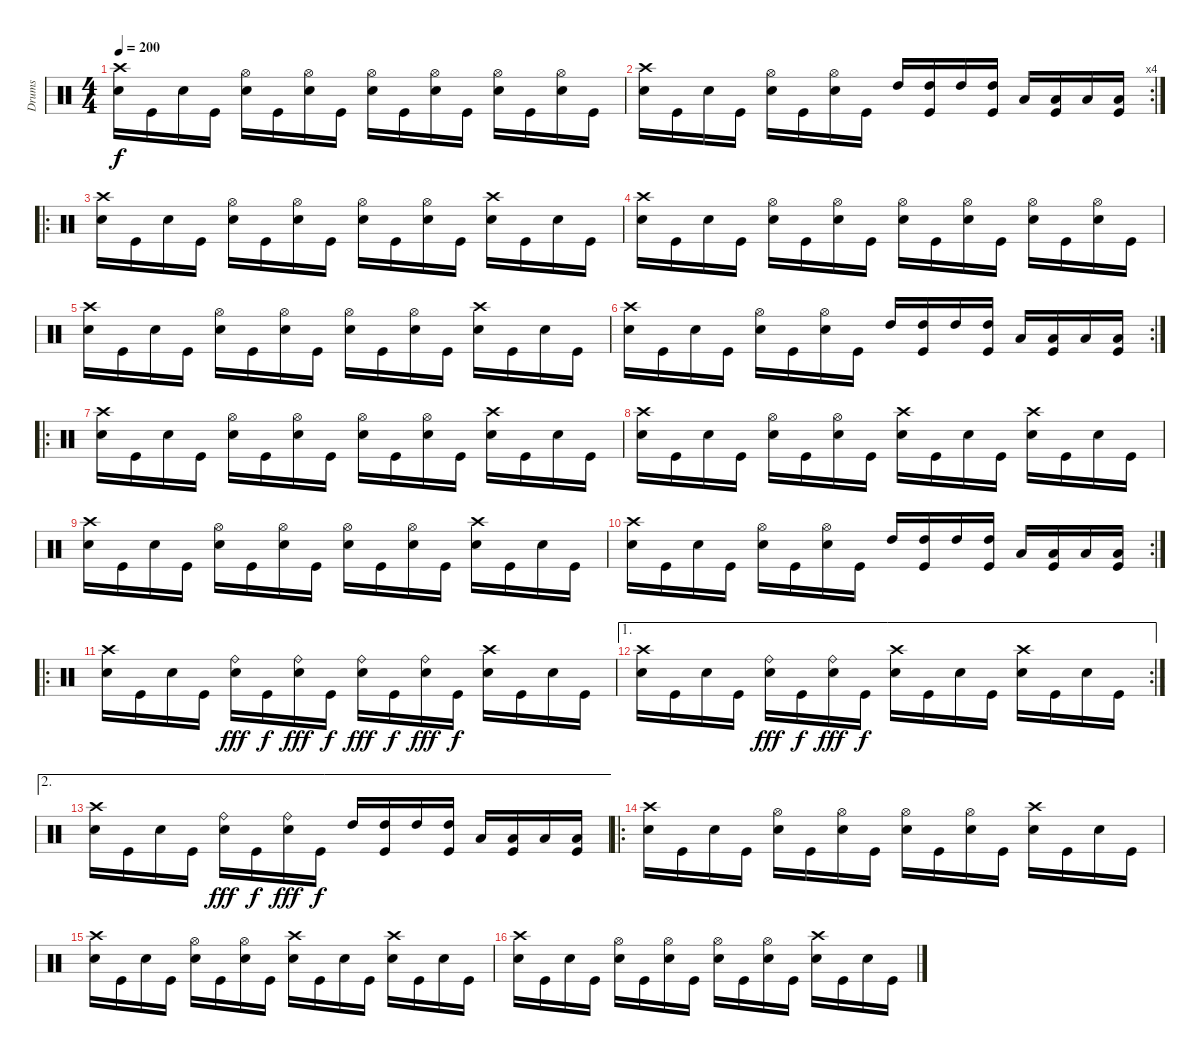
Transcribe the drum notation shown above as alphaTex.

\track ("Drums" "Drums") {instrument percussion}
\staff {score}
\articulation defaults
\ts (4 4)
\tempo 200
\clef neutral
\ks c
("Crash high (hit)" "Snare (hit) 2").16{dy f} "Kick (hit)".16 "Snare (hit) 2".16 "Kick (hit)".16 ("Hi-Hat (open)" "Snare (hit) 2").16 "Kick (hit)".16 ("Hi-Hat (open)" "Snare (hit) 2").16 "Kick (hit)".16 ("Hi-Hat (open)" "Snare (hit) 2").16 "Kick (hit)".16 ("Hi-Hat (open)" "Snare (hit) 2").16 "Kick (hit)".16 ("Hi-Hat (open)" "Snare (hit) 2").16 "Kick (hit)".16 ("Hi-Hat (open)" "Snare (hit) 2").16 "Kick (hit)".16 |
\rc 4
("Crash high (hit)" "Snare (hit) 2").16 "Kick (hit)".16 "Snare (hit) 2".16 "Kick (hit)".16 ("Hi-Hat (open)" "Snare (hit) 2").16 "Kick (hit)".16 ("Hi-Hat (open)" "Snare (hit) 2").16 "Kick (hit)".16 "High Tom (hit)".16 ("High Tom (hit)" "Kick (hit)").16 "High Tom (hit)".16 ("High Tom (hit)" "Kick (hit)").16 "Low Tom (hit)".16 ("Low Tom (hit)" "Kick (hit)").16 "Low Tom (hit)".16 ("Low Tom (hit)" "Kick (hit)").16 |
\ro
("Crash high (hit)" "Snare (hit) 2").16 "Kick (hit)".16 "Snare (hit) 2".16 "Kick (hit)".16 ("Hi-Hat (open)" "Snare (hit) 2").16 "Kick (hit)".16 ("Hi-Hat (open)" "Snare (hit) 2").16 "Kick (hit)".16 ("Hi-Hat (open)" "Snare (hit) 2").16 "Kick (hit)".16 ("Hi-Hat (open)" "Snare (hit) 2").16 "Kick (hit)".16 ("Crash high (hit)" "Snare (hit) 2").16 "Kick (hit)".16 "Snare (hit) 2".16 "Kick (hit)".16 |
("Crash high (hit)" "Snare (hit) 2").16 "Kick (hit)".16 "Snare (hit) 2".16 "Kick (hit)".16 ("Hi-Hat (open)" "Snare (hit) 2").16 "Kick (hit)".16 ("Hi-Hat (open)" "Snare (hit) 2").16 "Kick (hit)".16 ("Hi-Hat (open)" "Snare (hit) 2").16 "Kick (hit)".16 ("Hi-Hat (open)" "Snare (hit) 2").16 "Kick (hit)".16 ("Hi-Hat (open)" "Snare (hit) 2").16 "Kick (hit)".16 ("Hi-Hat (open)" "Snare (hit) 2").16 "Kick (hit)".16 |
("Crash high (hit)" "Snare (hit) 2").16 "Kick (hit)".16 "Snare (hit) 2".16 "Kick (hit)".16 ("Hi-Hat (open)" "Snare (hit) 2").16 "Kick (hit)".16 ("Hi-Hat (open)" "Snare (hit) 2").16 "Kick (hit)".16 ("Hi-Hat (open)" "Snare (hit) 2").16 "Kick (hit)".16 ("Hi-Hat (open)" "Snare (hit) 2").16 "Kick (hit)".16 ("Crash high (hit)" "Snare (hit) 2").16 "Kick (hit)".16 "Snare (hit) 2".16 "Kick (hit)".16 |
\rc 2
("Crash high (hit)" "Snare (hit) 2").16 "Kick (hit)".16 "Snare (hit) 2".16 "Kick (hit)".16 ("Hi-Hat (open)" "Snare (hit) 2").16 "Kick (hit)".16 ("Hi-Hat (open)" "Snare (hit) 2").16 "Kick (hit)".16 "High Tom (hit)".16 ("High Tom (hit)" "Kick (hit)").16 "High Tom (hit)".16 ("High Tom (hit)" "Kick (hit)").16 "Low Tom (hit)".16 ("Low Tom (hit)" "Kick (hit)").16 "Low Tom (hit)".16 ("Low Tom (hit)" "Kick (hit)").16 |
\ro
("Crash high (hit)" "Snare (hit) 2").16 "Kick (hit)".16 "Snare (hit) 2".16 "Kick (hit)".16 ("Hi-Hat (open)" "Snare (hit) 2").16 "Kick (hit)".16 ("Hi-Hat (open)" "Snare (hit) 2").16 "Kick (hit)".16 ("Hi-Hat (open)" "Snare (hit) 2").16 "Kick (hit)".16 ("Hi-Hat (open)" "Snare (hit) 2").16 "Kick (hit)".16 ("Crash high (hit)" "Snare (hit) 2").16 "Kick (hit)".16 "Snare (hit) 2".16 "Kick (hit)".16 |
("Crash high (hit)" "Snare (hit) 2").16 "Kick (hit)".16 "Snare (hit) 2".16 "Kick (hit)".16 ("Hi-Hat (open)" "Snare (hit) 2").16 "Kick (hit)".16 ("Hi-Hat (open)" "Snare (hit) 2").16 "Kick (hit)".16 ("Crash high (hit)" "Snare (hit) 2").16 "Kick (hit)".16 "Snare (hit) 2".16 "Kick (hit)".16 ("Crash high (hit)" "Snare (hit) 2").16 "Kick (hit)".16 "Snare (hit) 2".16 "Kick (hit)".16 |
("Crash high (hit)" "Snare (hit) 2").16 "Kick (hit)".16 "Snare (hit) 2".16 "Kick (hit)".16 ("Hi-Hat (open)" "Snare (hit) 2").16 "Kick (hit)".16 ("Hi-Hat (open)" "Snare (hit) 2").16 "Kick (hit)".16 ("Hi-Hat (open)" "Snare (hit) 2").16 "Kick (hit)".16 ("Hi-Hat (open)" "Snare (hit) 2").16 "Kick (hit)".16 ("Crash high (hit)" "Snare (hit) 2").16 "Kick (hit)".16 "Snare (hit) 2".16 "Kick (hit)".16 |
\rc 2
("Crash high (hit)" "Snare (hit) 2").16 "Kick (hit)".16 "Snare (hit) 2".16 "Kick (hit)".16 ("Hi-Hat (open)" "Snare (hit) 2").16 "Kick (hit)".16 ("Hi-Hat (open)" "Snare (hit) 2").16 "Kick (hit)".16 "High Tom (hit)".16 ("High Tom (hit)" "Kick (hit)").16 "High Tom (hit)".16 ("High Tom (hit)" "Kick (hit)").16 "Low Tom (hit)".16 ("Low Tom (hit)" "Kick (hit)").16 "Low Tom (hit)".16 ("Low Tom (hit)" "Kick (hit)").16 |
\ro
("Crash high (hit)" "Snare (hit) 2").16 "Kick (hit)".16 "Snare (hit) 2".16 "Kick (hit)".16 ("Ride (bell)" "Snare (hit) 2").16{dy fff} "Kick (hit)".16{dy f} ("Ride (bell)" "Snare (hit) 2").16{dy fff} "Kick (hit)".16{dy f} ("Ride (bell)" "Snare (hit) 2").16{dy fff} "Kick (hit)".16{dy f} ("Ride (bell)" "Snare (hit) 2").16{dy fff} "Kick (hit)".16{dy f} ("Crash high (hit)" "Snare (hit) 2").16 "Kick (hit)".16 "Snare (hit) 2".16 "Kick (hit)".16 |
\ae 1
\rc 2
("Crash high (hit)" "Snare (hit) 2").16 "Kick (hit)".16 "Snare (hit) 2".16 "Kick (hit)".16 ("Ride (bell)" "Snare (hit) 2").16{dy fff} "Kick (hit)".16{dy f} ("Ride (bell)" "Snare (hit) 2").16{dy fff} "Kick (hit)".16{dy f} ("Crash high (hit)" "Snare (hit) 2").16 "Kick (hit)".16 "Snare (hit) 2".16 "Kick (hit)".16 ("Crash high (hit)" "Snare (hit) 2").16 "Kick (hit)".16 "Snare (hit) 2".16 "Kick (hit)".16 |
\ae 2
("Crash high (hit)" "Snare (hit) 2").16 "Kick (hit)".16 "Snare (hit) 2".16 "Kick (hit)".16 ("Ride (bell)" "Snare (hit) 2").16{dy fff} "Kick (hit)".16{dy f} ("Ride (bell)" "Snare (hit) 2").16{dy fff} "Kick (hit)".16{dy f} "High Tom (hit)".16 ("High Tom (hit)" "Kick (hit)").16 "High Tom (hit)".16 ("High Tom (hit)" "Kick (hit)").16 "Low Tom (hit)".16 ("Low Tom (hit)" "Kick (hit)").16 "Low Tom (hit)".16 ("Low Tom (hit)" "Kick (hit)").16 |
\ro
("Crash high (hit)" "Snare (hit) 2").16 "Kick (hit)".16 "Snare (hit) 2".16 "Kick (hit)".16 ("Hi-Hat (open)" "Snare (hit) 2").16 "Kick (hit)".16 ("Hi-Hat (open)" "Snare (hit) 2").16 "Kick (hit)".16 ("Hi-Hat (open)" "Snare (hit) 2").16 "Kick (hit)".16 ("Hi-Hat (open)" "Snare (hit) 2").16 "Kick (hit)".16 ("Crash high (hit)" "Snare (hit) 2").16 "Kick (hit)".16 "Snare (hit) 2".16 "Kick (hit)".16 |
("Crash high (hit)" "Snare (hit) 2").16 "Kick (hit)".16 "Snare (hit) 2".16 "Kick (hit)".16 ("Hi-Hat (open)" "Snare (hit) 2").16 "Kick (hit)".16 ("Hi-Hat (open)" "Snare (hit) 2").16 "Kick (hit)".16 ("Crash high (hit)" "Snare (hit) 2").16 "Kick (hit)".16 "Snare (hit) 2".16 "Kick (hit)".16 ("Crash high (hit)" "Snare (hit) 2").16 "Kick (hit)".16 "Snare (hit) 2".16 "Kick (hit)".16 |
("Crash high (hit)" "Snare (hit) 2").16 "Kick (hit)".16 "Snare (hit) 2".16 "Kick (hit)".16 ("Hi-Hat (open)" "Snare (hit) 2").16 "Kick (hit)".16 ("Hi-Hat (open)" "Snare (hit) 2").16 "Kick (hit)".16 ("Hi-Hat (open)" "Snare (hit) 2").16 "Kick (hit)".16 ("Hi-Hat (open)" "Snare (hit) 2").16 "Kick (hit)".16 ("Crash high (hit)" "Snare (hit) 2").16 "Kick (hit)".16 "Snare (hit) 2".16 "Kick (hit)".16
